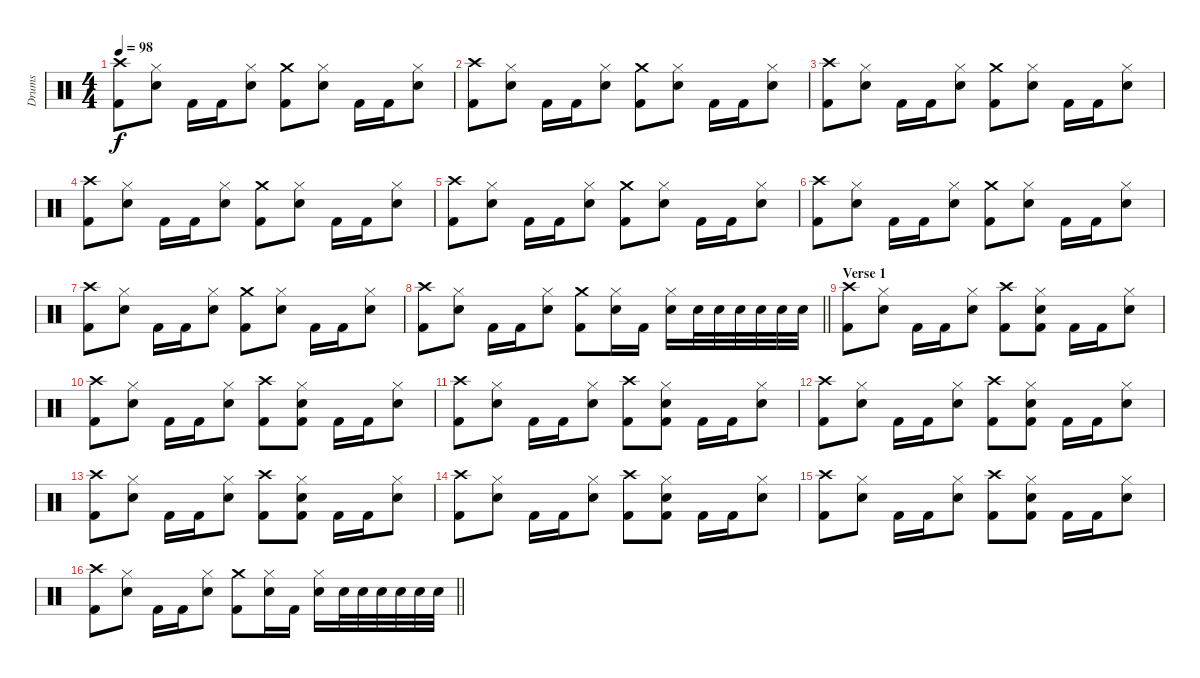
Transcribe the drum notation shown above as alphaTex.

\track ("Drums" "Drums") {instrument percussion}
\staff {score}
\articulation defaults
\ts (4 4)
\tempo 98
\clef neutral
\ks c
("Crash high (hit)" "Kick (hit) 2").8{dy f} ("Hi-Hat (closed)" "Snare (hit) 2").8 "Kick (hit) 2".16 "Kick (hit) 2".16 ("Hi-Hat (closed)" "Snare (hit) 2").8 ("Crash medium (hit)" "Kick (hit) 2").8 ("Hi-Hat (closed)" "Snare (hit) 2").8 "Kick (hit) 2".16 "Kick (hit) 2".16 ("Hi-Hat (closed)" "Snare (hit) 2").8 |
("Crash high (hit)" "Kick (hit) 2").8 ("Hi-Hat (closed)" "Snare (hit) 2").8 "Kick (hit) 2".16 "Kick (hit) 2".16 ("Hi-Hat (closed)" "Snare (hit) 2").8 ("Crash medium (hit)" "Kick (hit) 2").8 ("Hi-Hat (closed)" "Snare (hit) 2").8 "Kick (hit) 2".16 "Kick (hit) 2".16 ("Hi-Hat (closed)" "Snare (hit) 2").8 |
("Crash high (hit)" "Kick (hit) 2").8 ("Hi-Hat (closed)" "Snare (hit) 2").8 "Kick (hit) 2".16 "Kick (hit) 2".16 ("Hi-Hat (closed)" "Snare (hit) 2").8 ("Crash medium (hit)" "Kick (hit) 2").8 ("Hi-Hat (closed)" "Snare (hit) 2").8 "Kick (hit) 2".16 "Kick (hit) 2".16 ("Hi-Hat (closed)" "Snare (hit) 2").8 |
("Crash high (hit)" "Kick (hit) 2").8 ("Hi-Hat (closed)" "Snare (hit) 2").8 "Kick (hit) 2".16 "Kick (hit) 2".16 ("Hi-Hat (closed)" "Snare (hit) 2").8 ("Crash medium (hit)" "Kick (hit) 2").8 ("Hi-Hat (closed)" "Snare (hit) 2").8 "Kick (hit) 2".16 "Kick (hit) 2".16 ("Hi-Hat (closed)" "Snare (hit) 2").8 |
("Crash high (hit)" "Kick (hit) 2").8 ("Hi-Hat (closed)" "Snare (hit) 2").8 "Kick (hit) 2".16 "Kick (hit) 2".16 ("Hi-Hat (closed)" "Snare (hit) 2").8 ("Crash medium (hit)" "Kick (hit) 2").8 ("Hi-Hat (closed)" "Snare (hit) 2").8 "Kick (hit) 2".16 "Kick (hit) 2".16 ("Hi-Hat (closed)" "Snare (hit) 2").8 |
("Crash high (hit)" "Kick (hit) 2").8 ("Hi-Hat (closed)" "Snare (hit) 2").8 "Kick (hit) 2".16 "Kick (hit) 2".16 ("Hi-Hat (closed)" "Snare (hit) 2").8 ("Crash medium (hit)" "Kick (hit) 2").8 ("Hi-Hat (closed)" "Snare (hit) 2").8 "Kick (hit) 2".16 "Kick (hit) 2".16 ("Hi-Hat (closed)" "Snare (hit) 2").8 |
("Crash high (hit)" "Kick (hit) 2").8 ("Hi-Hat (closed)" "Snare (hit) 2").8 "Kick (hit) 2".16 "Kick (hit) 2".16 ("Hi-Hat (closed)" "Snare (hit) 2").8 ("Crash medium (hit)" "Kick (hit) 2").8 ("Hi-Hat (closed)" "Snare (hit) 2").8 "Kick (hit) 2".16 "Kick (hit) 2".16 ("Hi-Hat (closed)" "Snare (hit) 2").8 |
\barLineRight lightlight
("Crash high (hit)" "Kick (hit) 2").8 ("Hi-Hat (closed)" "Snare (hit) 2").8 "Kick (hit) 2".16 "Kick (hit) 2".16 ("Hi-Hat (closed)" "Snare (hit) 2").8 ("Crash medium (hit)" "Kick (hit) 2").8 ("Hi-Hat (closed)" "Snare (hit) 2").16 "Kick (hit) 2".16 ("Hi-Hat (closed)" "Snare (hit) 2").16 "Snare (hit) 2".32 "Snare (hit) 2".32 "Snare (hit) 2".32 "Snare (hit) 2".32 "Snare (hit) 2".32 "Snare (hit) 2".32 |
\section ("" "Verse 1")
("Crash high (hit)" "Kick (hit) 2").8 ("Hi-Hat (closed)" "Snare (hit) 2").8 "Kick (hit) 2".16 "Kick (hit) 2".16 ("Hi-Hat (closed)" "Snare (hit) 2").8 ("Crash high (hit)" "Kick (hit) 2").8 ("Hi-Hat (closed)" "Snare (hit) 2" "Kick (hit) 2").8 "Kick (hit) 2".16 "Kick (hit) 2".16 ("Hi-Hat (closed)" "Snare (hit) 2").8 |
("Crash high (hit)" "Kick (hit) 2").8 ("Hi-Hat (closed)" "Snare (hit) 2").8 "Kick (hit) 2".16 "Kick (hit) 2".16 ("Hi-Hat (closed)" "Snare (hit) 2").8 ("Crash high (hit)" "Kick (hit) 2").8 ("Hi-Hat (closed)" "Snare (hit) 2" "Kick (hit) 2").8 "Kick (hit) 2".16 "Kick (hit) 2".16 ("Hi-Hat (closed)" "Snare (hit) 2").8 |
("Crash high (hit)" "Kick (hit) 2").8 ("Hi-Hat (closed)" "Snare (hit) 2").8 "Kick (hit) 2".16 "Kick (hit) 2".16 ("Hi-Hat (closed)" "Snare (hit) 2").8 ("Crash high (hit)" "Kick (hit) 2").8 ("Hi-Hat (closed)" "Snare (hit) 2" "Kick (hit) 2").8 "Kick (hit) 2".16 "Kick (hit) 2".16 ("Hi-Hat (closed)" "Snare (hit) 2").8 |
("Crash high (hit)" "Kick (hit) 2").8 ("Hi-Hat (closed)" "Snare (hit) 2").8 "Kick (hit) 2".16 "Kick (hit) 2".16 ("Hi-Hat (closed)" "Snare (hit) 2").8 ("Crash high (hit)" "Kick (hit) 2").8 ("Hi-Hat (closed)" "Snare (hit) 2" "Kick (hit) 2").8 "Kick (hit) 2".16 "Kick (hit) 2".16 ("Hi-Hat (closed)" "Snare (hit) 2").8 |
("Crash high (hit)" "Kick (hit) 2").8 ("Hi-Hat (closed)" "Snare (hit) 2").8 "Kick (hit) 2".16 "Kick (hit) 2".16 ("Hi-Hat (closed)" "Snare (hit) 2").8 ("Crash high (hit)" "Kick (hit) 2").8 ("Hi-Hat (closed)" "Snare (hit) 2" "Kick (hit) 2").8 "Kick (hit) 2".16 "Kick (hit) 2".16 ("Hi-Hat (closed)" "Snare (hit) 2").8 |
("Crash high (hit)" "Kick (hit) 2").8 ("Hi-Hat (closed)" "Snare (hit) 2").8 "Kick (hit) 2".16 "Kick (hit) 2".16 ("Hi-Hat (closed)" "Snare (hit) 2").8 ("Crash high (hit)" "Kick (hit) 2").8 ("Hi-Hat (closed)" "Snare (hit) 2" "Kick (hit) 2").8 "Kick (hit) 2".16 "Kick (hit) 2".16 ("Hi-Hat (closed)" "Snare (hit) 2").8 |
("Crash high (hit)" "Kick (hit) 2").8 ("Hi-Hat (closed)" "Snare (hit) 2").8 "Kick (hit) 2".16 "Kick (hit) 2".16 ("Hi-Hat (closed)" "Snare (hit) 2").8 ("Crash high (hit)" "Kick (hit) 2").8 ("Hi-Hat (closed)" "Snare (hit) 2" "Kick (hit) 2").8 "Kick (hit) 2".16 "Kick (hit) 2".16 ("Hi-Hat (closed)" "Snare (hit) 2").8 |
\barLineRight lightlight
("Crash high (hit)" "Kick (hit) 2").8 ("Hi-Hat (closed)" "Snare (hit) 2").8 "Kick (hit) 2".16 "Kick (hit) 2".16 ("Hi-Hat (closed)" "Snare (hit) 2").8 ("Crash medium (hit)" "Kick (hit) 2").8 ("Hi-Hat (closed)" "Snare (hit) 2").16 "Kick (hit) 2".16 ("Hi-Hat (closed)" "Snare (hit) 2").16 "Snare (hit) 2".32 "Snare (hit) 2".32 "Snare (hit) 2".32 "Snare (hit) 2".32 "Snare (hit) 2".32 "Snare (hit) 2".32
